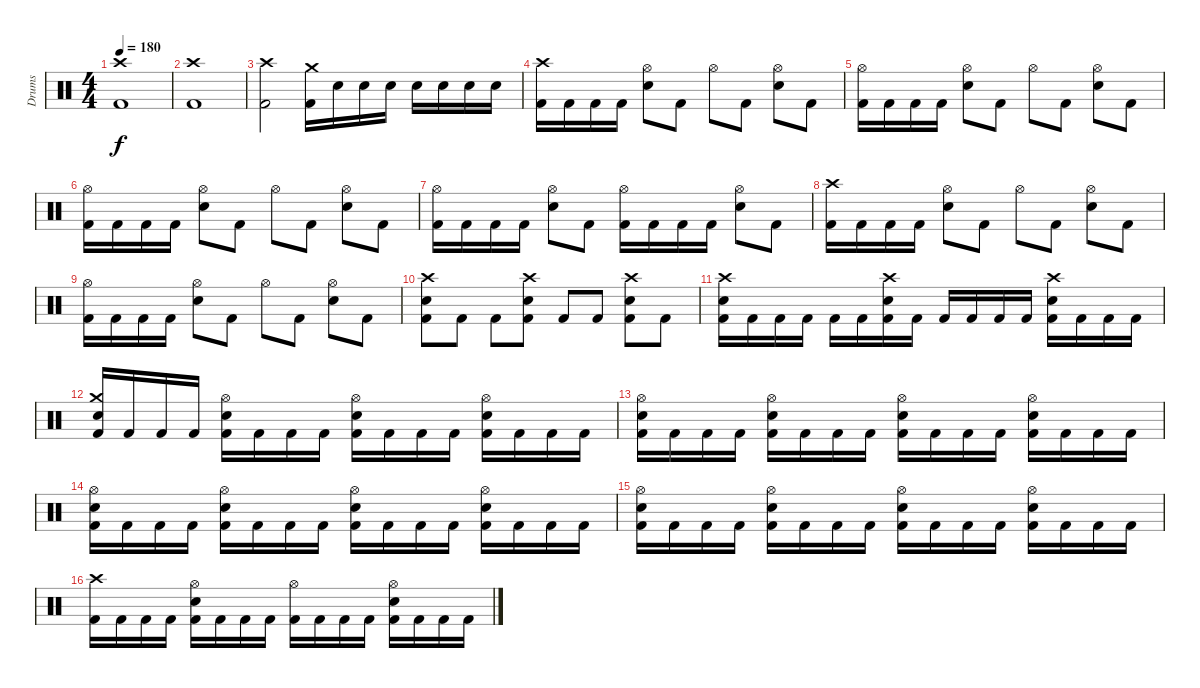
\track ("Drums" "Drums") {instrument percussion}
\staff {score}
\articulation defaults
\ts (4 4)
\tempo 180
\clef neutral
\ks c
("Crash high (hit)" "Kick (hit) 2").1{dy f} |
("Crash high (hit)" "Kick (hit) 2").1 |
("Crash high (hit)" "Kick (hit) 2").2 ("Crash medium (hit)" "Kick (hit) 2").16 "Electric Snare (hit)".16 "Electric Snare (hit)".16 "Electric Snare (hit)".16 "Electric Snare (hit)".16 "Electric Snare (hit)".16 "Electric Snare (hit)".16 "Electric Snare (hit)".16 |
("Crash high (hit)" "Kick (hit) 2").16 "Kick (hit) 2".16 "Kick (hit) 2".16 "Kick (hit) 2".16 ("Hi-Hat (open)" "Electric Snare (hit)").8 "Kick (hit) 2".8 "Hi-Hat (open)".8 "Kick (hit) 2".8 ("Hi-Hat (open)" "Electric Snare (hit)").8 "Kick (hit) 2".8 |
("Hi-Hat (open)" "Kick (hit) 2").16 "Kick (hit) 2".16 "Kick (hit) 2".16 "Kick (hit) 2".16 ("Hi-Hat (open)" "Electric Snare (hit)").8 "Kick (hit) 2".8 "Hi-Hat (open)".8 "Kick (hit) 2".8 ("Hi-Hat (open)" "Electric Snare (hit)").8 "Kick (hit) 2".8 |
("Hi-Hat (open)" "Kick (hit) 2").16 "Kick (hit) 2".16 "Kick (hit) 2".16 "Kick (hit) 2".16 ("Hi-Hat (open)" "Electric Snare (hit)").8 "Kick (hit) 2".8 "Hi-Hat (open)".8 "Kick (hit) 2".8 ("Hi-Hat (open)" "Electric Snare (hit)").8 "Kick (hit) 2".8 |
("Hi-Hat (open)" "Kick (hit) 2").16 "Kick (hit) 2".16 "Kick (hit) 2".16 "Kick (hit) 2".16 ("Hi-Hat (open)" "Electric Snare (hit)").8 "Kick (hit) 2".8 ("Hi-Hat (open)" "Kick (hit) 2").16 "Kick (hit) 2".16 "Kick (hit) 2".16 "Kick (hit) 2".16 ("Hi-Hat (open)" "Electric Snare (hit)").8 "Kick (hit) 2".8 |
("Crash high (hit)" "Kick (hit) 2").16 "Kick (hit) 2".16 "Kick (hit) 2".16 "Kick (hit) 2".16 ("Hi-Hat (open)" "Electric Snare (hit)").8 "Kick (hit) 2".8 "Hi-Hat (open)".8 "Kick (hit) 2".8 ("Hi-Hat (open)" "Electric Snare (hit)").8 "Kick (hit) 2".8 |
("Hi-Hat (open)" "Kick (hit) 2").16 "Kick (hit) 2".16 "Kick (hit) 2".16 "Kick (hit) 2".16 ("Hi-Hat (open)" "Electric Snare (hit)").8 "Kick (hit) 2".8 "Hi-Hat (open)".8 "Kick (hit) 2".8 ("Hi-Hat (open)" "Electric Snare (hit)").8 "Kick (hit) 2".8 |
("Crash high (hit)" "Electric Snare (hit)" "Kick (hit) 2").8 "Kick (hit) 2".8 "Kick (hit) 2".8 ("Crash high (hit)" "Electric Snare (hit)" "Kick (hit) 2").8 "Kick (hit) 2".8 "Kick (hit) 2".8 ("Crash high (hit)" "Electric Snare (hit)" "Kick (hit) 2").8 "Kick (hit) 2".8 |
("Crash high (hit)" "Electric Snare (hit)" "Kick (hit) 2").16 "Kick (hit) 2".16 "Kick (hit) 2".16 "Kick (hit) 2".16 "Kick (hit) 2".16 "Kick (hit) 2".16 ("Crash high (hit)" "Electric Snare (hit)" "Kick (hit) 2").16 "Kick (hit) 2".16 "Kick (hit) 2".16 "Kick (hit) 2".16 "Kick (hit) 2".16 "Kick (hit) 2".16 ("Crash high (hit)" "Electric Snare (hit)" "Kick (hit) 2").16 "Kick (hit) 2".16 "Kick (hit) 2".16 "Kick (hit) 2".16 |
("Crash medium (hit)" "Electric Snare (hit)" "Kick (hit) 2").16 "Kick (hit) 2".16 "Kick (hit) 2".16 "Kick (hit) 2".16 ("Hi-Hat (open)" "Electric Snare (hit)" "Kick (hit) 2").16 "Kick (hit) 2".16 "Kick (hit) 2".16 "Kick (hit) 2".16 ("Hi-Hat (open)" "Electric Snare (hit)" "Kick (hit) 2").16 "Kick (hit) 2".16 "Kick (hit) 2".16 "Kick (hit) 2".16 ("Hi-Hat (open)" "Electric Snare (hit)" "Kick (hit) 2").16 "Kick (hit) 2".16 "Kick (hit) 2".16 "Kick (hit) 2".16 |
("Hi-Hat (open)" "Electric Snare (hit)" "Kick (hit) 2").16 "Kick (hit) 2".16 "Kick (hit) 2".16 "Kick (hit) 2".16 ("Hi-Hat (open)" "Electric Snare (hit)" "Kick (hit) 2").16 "Kick (hit) 2".16 "Kick (hit) 2".16 "Kick (hit) 2".16 ("Hi-Hat (open)" "Electric Snare (hit)" "Kick (hit) 2").16 "Kick (hit) 2".16 "Kick (hit) 2".16 "Kick (hit) 2".16 ("Hi-Hat (open)" "Electric Snare (hit)" "Kick (hit) 2").16 "Kick (hit) 2".16 "Kick (hit) 2".16 "Kick (hit) 2".16 |
("Hi-Hat (open)" "Electric Snare (hit)" "Kick (hit) 2").16 "Kick (hit) 2".16 "Kick (hit) 2".16 "Kick (hit) 2".16 ("Hi-Hat (open)" "Electric Snare (hit)" "Kick (hit) 2").16 "Kick (hit) 2".16 "Kick (hit) 2".16 "Kick (hit) 2".16 ("Hi-Hat (open)" "Electric Snare (hit)" "Kick (hit) 2").16 "Kick (hit) 2".16 "Kick (hit) 2".16 "Kick (hit) 2".16 ("Hi-Hat (open)" "Electric Snare (hit)" "Kick (hit) 2").16 "Kick (hit) 2".16 "Kick (hit) 2".16 "Kick (hit) 2".16 |
("Hi-Hat (open)" "Electric Snare (hit)" "Kick (hit) 2").16 "Kick (hit) 2".16 "Kick (hit) 2".16 "Kick (hit) 2".16 ("Hi-Hat (open)" "Electric Snare (hit)" "Kick (hit) 2").16 "Kick (hit) 2".16 "Kick (hit) 2".16 "Kick (hit) 2".16 ("Hi-Hat (open)" "Electric Snare (hit)" "Kick (hit) 2").16 "Kick (hit) 2".16 "Kick (hit) 2".16 "Kick (hit) 2".16 ("Hi-Hat (open)" "Electric Snare (hit)" "Kick (hit) 2").16 "Kick (hit) 2".16 "Kick (hit) 2".16 "Kick (hit) 2".16 |
("Crash high (hit)" "Kick (hit) 2").16 "Kick (hit) 2".16 "Kick (hit) 2".16 "Kick (hit) 2".16 ("Hi-Hat (open)" "Electric Snare (hit)" "Kick (hit) 2").16 "Kick (hit) 2".16 "Kick (hit) 2".16 "Kick (hit) 2".16 ("Hi-Hat (open)" "Kick (hit) 2").16 "Kick (hit) 2".16 "Kick (hit) 2".16 "Kick (hit) 2".16 ("Hi-Hat (open)" "Electric Snare (hit)" "Kick (hit) 2").16 "Kick (hit) 2".16 "Kick (hit) 2".16 "Kick (hit) 2".16
